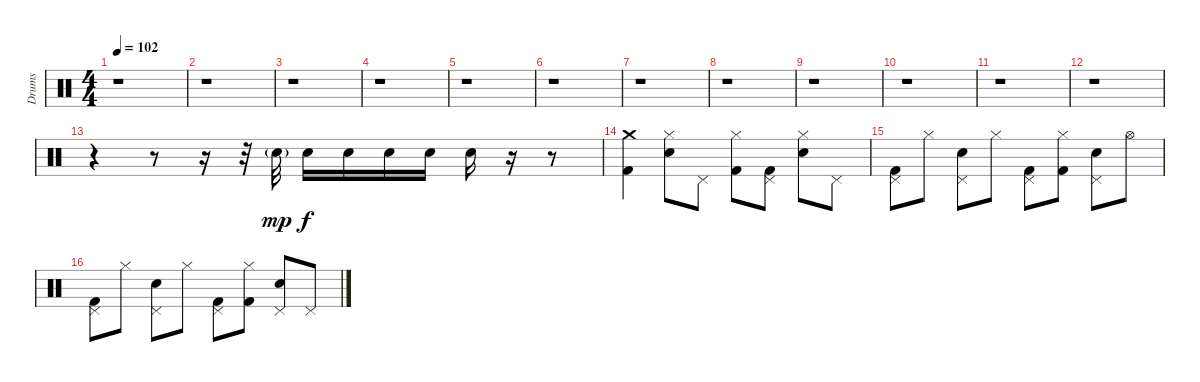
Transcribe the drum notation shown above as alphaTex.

\track ("Drums" "Drums") {instrument percussion}
\staff {score}
\articulation defaults
\ts (4 4)
\tempo 102
\clef neutral
\ks c
r.1{dy mp} |
r.1 |
r.1 |
r.1 |
r.1 |
r.1 |
r.1 |
r.1 |
r.1 |
r.1 |
r.1 |
r.1 |
r.4 r.8 r.16 r.32 "Electric Snare (hit)"{g}.32 "Electric Snare (hit)".16{dy f} "Electric Snare (hit)".16 "Electric Snare (hit)".16 "Electric Snare (hit)".16 "Electric Snare (hit)".16 r.16 r.8 |
("Crash medium (hit)" "Kick (hit) 2").4 ("Hi-Hat (closed)" "Electric Snare (hit)").8 "Pedal Hi-Hat (hit)".8 ("Hi-Hat (closed)" "Kick (hit) 2").8 ("Pedal Hi-Hat (hit)" "Kick (hit) 2").8 ("Hi-Hat (closed)" "Electric Snare (hit)").8 "Pedal Hi-Hat (hit)".8 |
("Pedal Hi-Hat (hit)" "Kick (hit) 2").8 "Hi-Hat (closed)".8 ("Pedal Hi-Hat (hit)" "Electric Snare (hit)").8 "Hi-Hat (closed)".8 ("Pedal Hi-Hat (hit)" "Kick (hit) 2").8 ("Hi-Hat (closed)" "Kick (hit) 2").8 ("Pedal Hi-Hat (hit)" "Electric Snare (hit)").8 "Hi-Hat (open)".8 |
("Pedal Hi-Hat (hit)" "Kick (hit) 2").8 "Hi-Hat (closed)".8 ("Pedal Hi-Hat (hit)" "Electric Snare (hit)").8 "Hi-Hat (closed)".8 ("Pedal Hi-Hat (hit)" "Kick (hit) 2").8 ("Hi-Hat (closed)" "Kick (hit) 2").8 ("Pedal Hi-Hat (hit)" "Electric Snare (hit)").8 "Pedal Hi-Hat (hit)".8
